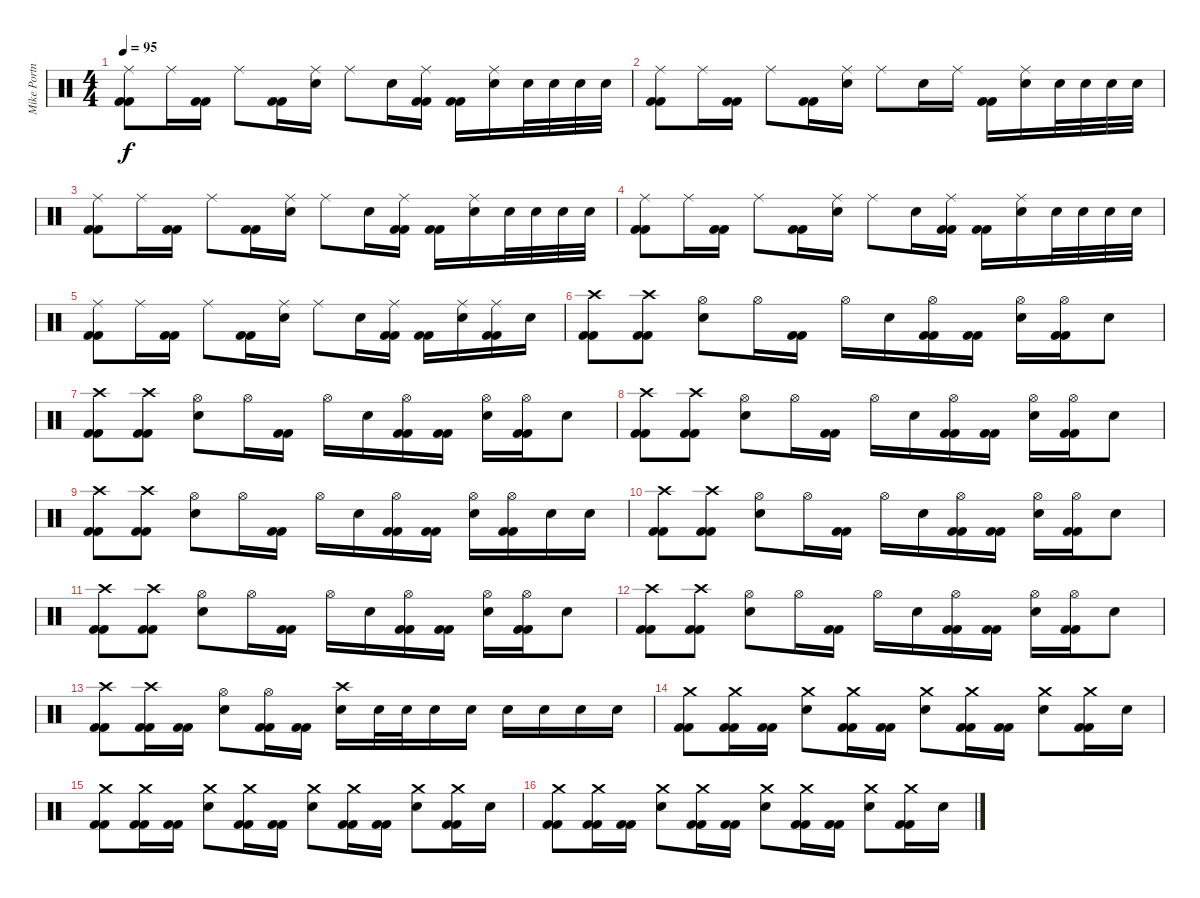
\track ("Mike Portnoy" "Mike Portn") {instrument percussion}
\staff {score}
\articulation defaults
\ts (4 4)
\tempo 95
\clef neutral
\ks c
("Ride (middle)" "Kick (hit) 2" "Kick (hit) 2").8{dy f} "Ride (middle)".16 ("Kick (hit) 2" "Kick (hit) 2").16 "Ride (middle)".8 ("Kick (hit) 2" "Kick (hit) 2").16 ("Ride (middle)" "Snare (hit) 2").16 "Ride (middle)".8 "Snare (hit) 2".16 ("Ride (middle)" "Kick (hit) 2" "Kick (hit) 2").16 ("Kick (hit) 2" "Kick (hit) 2").16 ("Ride (middle)" "Snare (hit) 2").16 "Snare (hit) 2".32 "Snare (hit) 2".32 "Snare (hit) 2".32 "Snare (hit) 2".32 |
("Ride (middle)" "Kick (hit) 2" "Kick (hit) 2").8 "Ride (middle)".16 ("Kick (hit) 2" "Kick (hit) 2").16 "Ride (middle)".8 ("Kick (hit) 2" "Kick (hit) 2").16 ("Ride (middle)" "Snare (hit) 2").16 "Ride (middle)".8 "Snare (hit) 2".16 "Ride (middle)".16 ("Kick (hit) 2" "Kick (hit) 2").16 ("Ride (middle)" "Snare (hit) 2").16 "Snare (hit) 2".32 "Snare (hit) 2".32 "Snare (hit) 2".32 "Snare (hit) 2".32 |
("Ride (middle)" "Kick (hit) 2" "Kick (hit) 2").8 "Ride (middle)".16 ("Kick (hit) 2" "Kick (hit) 2").16 "Ride (middle)".8 ("Kick (hit) 2" "Kick (hit) 2").16 ("Ride (middle)" "Snare (hit) 2").16 "Ride (middle)".8 "Snare (hit) 2".16 ("Ride (middle)" "Kick (hit) 2" "Kick (hit) 2").16 ("Kick (hit) 2" "Kick (hit) 2").16 ("Ride (middle)" "Snare (hit) 2").16 "Snare (hit) 2".32 "Snare (hit) 2".32 "Snare (hit) 2".32 "Snare (hit) 2".32 |
("Ride (middle)" "Kick (hit) 2" "Kick (hit) 2").8 "Ride (middle)".16 ("Kick (hit) 2" "Kick (hit) 2").16 "Ride (middle)".8 ("Kick (hit) 2" "Kick (hit) 2").16 ("Ride (middle)" "Snare (hit) 2").16 "Ride (middle)".8 "Snare (hit) 2".16 ("Ride (middle)" "Kick (hit) 2" "Kick (hit) 2").16 ("Kick (hit) 2" "Kick (hit) 2").16 ("Ride (middle)" "Snare (hit) 2").16 "Snare (hit) 2".32 "Snare (hit) 2".32 "Snare (hit) 2".32 "Snare (hit) 2".32 |
("Ride (middle)" "Kick (hit) 2" "Kick (hit) 2").8 "Ride (middle)".16 ("Kick (hit) 2" "Kick (hit) 2").16 "Ride (middle)".8 ("Kick (hit) 2" "Kick (hit) 2").16 ("Ride (middle)" "Snare (hit) 2").16 "Ride (middle)".8 "Snare (hit) 2".16 ("Ride (middle)" "Kick (hit) 2" "Kick (hit) 2").16 ("Kick (hit) 2" "Kick (hit) 2").16 ("Ride (middle)" "Snare (hit) 2").16 ("Ride (middle)" "Kick (hit) 2" "Kick (hit) 2").16 "Snare (hit) 2".16 |
("Crash high (hit)" "Kick (hit) 2" "Kick (hit) 2").8 ("Crash high (hit)" "Kick (hit) 2" "Kick (hit) 2").8 ("Hi-Hat (open)" "Snare (hit) 2").8 "Hi-Hat (open)".16 ("Kick (hit) 2" "Kick (hit) 2").16 "Hi-Hat (open)".16 "Snare (hit) 2".16 ("Hi-Hat (open)" "Kick (hit) 2" "Kick (hit) 2").16 ("Kick (hit) 2" "Kick (hit) 2").16 ("Hi-Hat (open)" "Snare (hit) 2").16 ("Hi-Hat (open)" "Kick (hit) 2" "Kick (hit) 2").16 "Snare (hit) 2".8 |
("Crash high (hit)" "Kick (hit) 2" "Kick (hit) 2").8 ("Crash high (hit)" "Kick (hit) 2" "Kick (hit) 2").8 ("Hi-Hat (open)" "Snare (hit) 2").8 "Hi-Hat (open)".16 ("Kick (hit) 2" "Kick (hit) 2").16 "Hi-Hat (open)".16 "Snare (hit) 2".16 ("Hi-Hat (open)" "Kick (hit) 2" "Kick (hit) 2").16 ("Kick (hit) 2" "Kick (hit) 2").16 ("Hi-Hat (open)" "Snare (hit) 2").16 ("Hi-Hat (open)" "Kick (hit) 2" "Kick (hit) 2").16 "Snare (hit) 2".8 |
("Crash high (hit)" "Kick (hit) 2" "Kick (hit) 2").8 ("Crash high (hit)" "Kick (hit) 2" "Kick (hit) 2").8 ("Hi-Hat (open)" "Snare (hit) 2").8 "Hi-Hat (open)".16 ("Kick (hit) 2" "Kick (hit) 2").16 "Hi-Hat (open)".16 "Snare (hit) 2".16 ("Hi-Hat (open)" "Kick (hit) 2" "Kick (hit) 2").16 ("Kick (hit) 2" "Kick (hit) 2").16 ("Hi-Hat (open)" "Snare (hit) 2").16 ("Hi-Hat (open)" "Kick (hit) 2" "Kick (hit) 2").16 "Snare (hit) 2".8 |
("Crash high (hit)" "Kick (hit) 2" "Kick (hit) 2").8 ("Crash high (hit)" "Kick (hit) 2" "Kick (hit) 2").8 ("Hi-Hat (open)" "Snare (hit) 2").8 "Hi-Hat (open)".16 ("Kick (hit) 2" "Kick (hit) 2").16 "Hi-Hat (open)".16 "Snare (hit) 2".16 ("Hi-Hat (open)" "Kick (hit) 2" "Kick (hit) 2").16 ("Kick (hit) 2" "Kick (hit) 2").16 ("Hi-Hat (open)" "Snare (hit) 2").16 ("Hi-Hat (open)" "Kick (hit) 2" "Kick (hit) 2").16 "Snare (hit) 2".16 "Snare (hit) 2".16 |
("Crash high (hit)" "Kick (hit) 2" "Kick (hit) 2").8 ("Crash high (hit)" "Kick (hit) 2" "Kick (hit) 2").8 ("Hi-Hat (open)" "Snare (hit) 2").8 "Hi-Hat (open)".16 ("Kick (hit) 2" "Kick (hit) 2").16 "Hi-Hat (open)".16 "Snare (hit) 2".16 ("Hi-Hat (open)" "Kick (hit) 2" "Kick (hit) 2").16 ("Kick (hit) 2" "Kick (hit) 2").16 ("Hi-Hat (open)" "Snare (hit) 2").16 ("Hi-Hat (open)" "Kick (hit) 2" "Kick (hit) 2").16 "Snare (hit) 2".8 |
("Crash high (hit)" "Kick (hit) 2" "Kick (hit) 2").8 ("Crash high (hit)" "Kick (hit) 2" "Kick (hit) 2").8 ("Hi-Hat (open)" "Snare (hit) 2").8 "Hi-Hat (open)".16 ("Kick (hit) 2" "Kick (hit) 2").16 "Hi-Hat (open)".16 "Snare (hit) 2".16 ("Hi-Hat (open)" "Kick (hit) 2" "Kick (hit) 2").16 ("Kick (hit) 2" "Kick (hit) 2").16 ("Hi-Hat (open)" "Snare (hit) 2").16 ("Hi-Hat (open)" "Kick (hit) 2" "Kick (hit) 2").16 "Snare (hit) 2".8 |
("Crash high (hit)" "Kick (hit) 2" "Kick (hit) 2").8 ("Crash high (hit)" "Kick (hit) 2" "Kick (hit) 2").8 ("Hi-Hat (open)" "Snare (hit) 2").8 "Hi-Hat (open)".16 ("Kick (hit) 2" "Kick (hit) 2").16 "Hi-Hat (open)".16 "Snare (hit) 2".16 ("Hi-Hat (open)" "Kick (hit) 2" "Kick (hit) 2").16 ("Kick (hit) 2" "Kick (hit) 2").16 ("Hi-Hat (open)" "Snare (hit) 2").16 ("Hi-Hat (open)" "Kick (hit) 2" "Kick (hit) 2").16 "Snare (hit) 2".8 |
("Crash high (hit)" "Kick (hit) 2" "Kick (hit) 2").8 ("Crash high (hit)" "Kick (hit) 2" "Kick (hit) 2").16 ("Kick (hit) 2" "Kick (hit) 2").16 ("Hi-Hat (open)" "Snare (hit) 2").8 ("Hi-Hat (open)" "Kick (hit) 2" "Kick (hit) 2").16 ("Kick (hit) 2" "Kick (hit) 2").16 ("Crash high (hit)" "Snare (hit) 2").16 "Snare (hit) 2".32 "Snare (hit) 2".32 "Snare (hit) 2".16 "Snare (hit) 2".16 "Snare (hit) 2".16 "Snare (hit) 2".16 "Snare (hit) 2".16 "Snare (hit) 2".16 |
("Crash medium (hit)" "Kick (hit) 2" "Kick (hit) 2").8 ("Crash medium (hit)" "Kick (hit) 2" "Kick (hit) 2").16 ("Kick (hit) 2" "Kick (hit) 2").16 ("Crash medium (hit)" "Snare (hit) 2").8 ("Crash medium (hit)" "Kick (hit) 2" "Kick (hit) 2").16 ("Kick (hit) 2" "Kick (hit) 2").16 ("Crash medium (hit)" "Snare (hit) 2").8 ("Crash medium (hit)" "Kick (hit) 2" "Kick (hit) 2").16 ("Kick (hit) 2" "Kick (hit) 2").16 ("Crash medium (hit)" "Snare (hit) 2").8 ("Crash medium (hit)" "Kick (hit) 2" "Kick (hit) 2").16 "Snare (hit) 2".16 |
("Crash medium (hit)" "Kick (hit) 2" "Kick (hit) 2").8 ("Crash medium (hit)" "Kick (hit) 2" "Kick (hit) 2").16 ("Kick (hit) 2" "Kick (hit) 2").16 ("Crash medium (hit)" "Snare (hit) 2").8 ("Crash medium (hit)" "Kick (hit) 2" "Kick (hit) 2").16 ("Kick (hit) 2" "Kick (hit) 2").16 ("Crash medium (hit)" "Snare (hit) 2").8 ("Crash medium (hit)" "Kick (hit) 2" "Kick (hit) 2").16 ("Kick (hit) 2" "Kick (hit) 2").16 ("Crash medium (hit)" "Snare (hit) 2").8 ("Crash medium (hit)" "Kick (hit) 2" "Kick (hit) 2").16 "Snare (hit) 2".16 |
("Crash medium (hit)" "Kick (hit) 2" "Kick (hit) 2").8 ("Crash medium (hit)" "Kick (hit) 2" "Kick (hit) 2").16 ("Kick (hit) 2" "Kick (hit) 2").16 ("Crash medium (hit)" "Snare (hit) 2").8 ("Crash medium (hit)" "Kick (hit) 2" "Kick (hit) 2").16 ("Kick (hit) 2" "Kick (hit) 2").16 ("Crash medium (hit)" "Snare (hit) 2").8 ("Crash medium (hit)" "Kick (hit) 2" "Kick (hit) 2").16 ("Kick (hit) 2" "Kick (hit) 2").16 ("Crash medium (hit)" "Snare (hit) 2").8 ("Crash medium (hit)" "Kick (hit) 2" "Kick (hit) 2").16 "Snare (hit) 2".16
